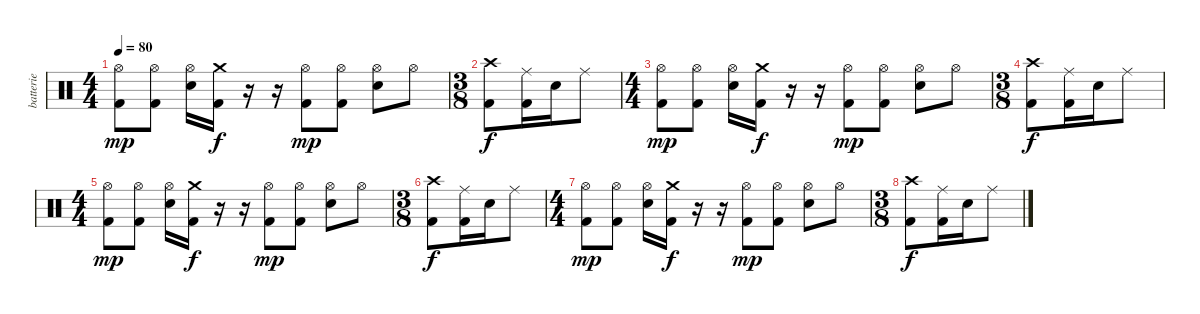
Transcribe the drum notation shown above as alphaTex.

\track ("batterie" "batterie") {instrument percussion}
\staff {score}
\articulation defaults
\ts (4 4)
\tempo 80
\clef neutral
\ks c
("Hi-Hat (open)" "Kick (hit) 2").8{dy mp} ("Hi-Hat (open)" "Kick (hit) 2").8 ("Hi-Hat (open)" "Electric Snare (hit)").16 ("Crash medium (hit)" "Kick (hit) 2").16{dy f} r.16 r.16 ("Hi-Hat (open)" "Kick (hit) 2").8{dy mp} ("Hi-Hat (open)" "Kick (hit) 2").8 ("Hi-Hat (open)" "Electric Snare (hit)").8 "Hi-Hat (open)".8 |
\ts (3 8)
("Crash high (hit)" "Kick (hit) 2").8{dy f} ("Ride (middle)" "Kick (hit) 2").16 "Electric Snare (hit)".16 "Ride (middle)".8 |
\ts (4 4)
("Hi-Hat (open)" "Kick (hit) 2").8{dy mp} ("Hi-Hat (open)" "Kick (hit) 2").8 ("Hi-Hat (open)" "Electric Snare (hit)").16 ("Crash medium (hit)" "Kick (hit) 2").16{dy f} r.16 r.16 ("Hi-Hat (open)" "Kick (hit) 2").8{dy mp} ("Hi-Hat (open)" "Kick (hit) 2").8 ("Hi-Hat (open)" "Electric Snare (hit)").8 "Hi-Hat (open)".8 |
\ts (3 8)
("Crash high (hit)" "Kick (hit) 2").8{dy f} ("Ride (middle)" "Kick (hit) 2").16 "Electric Snare (hit)".16 "Ride (middle)".8 |
\ts (4 4)
("Hi-Hat (open)" "Kick (hit) 2").8{dy mp} ("Hi-Hat (open)" "Kick (hit) 2").8 ("Hi-Hat (open)" "Electric Snare (hit)").16 ("Crash medium (hit)" "Kick (hit) 2").16{dy f} r.16 r.16 ("Hi-Hat (open)" "Kick (hit) 2").8{dy mp} ("Hi-Hat (open)" "Kick (hit) 2").8 ("Hi-Hat (open)" "Electric Snare (hit)").8 "Hi-Hat (open)".8 |
\ts (3 8)
("Crash high (hit)" "Kick (hit) 2").8{dy f} ("Ride (middle)" "Kick (hit) 2").16 "Electric Snare (hit)".16 "Ride (middle)".8 |
\ts (4 4)
("Hi-Hat (open)" "Kick (hit) 2").8{dy mp} ("Hi-Hat (open)" "Kick (hit) 2").8 ("Hi-Hat (open)" "Electric Snare (hit)").16 ("Crash medium (hit)" "Kick (hit) 2").16{dy f} r.16 r.16 ("Hi-Hat (open)" "Kick (hit) 2").8{dy mp} ("Hi-Hat (open)" "Kick (hit) 2").8 ("Hi-Hat (open)" "Electric Snare (hit)").8 "Hi-Hat (open)".8 |
\ts (3 8)
("Crash high (hit)" "Kick (hit) 2").8{dy f} ("Ride (middle)" "Kick (hit) 2").16 "Electric Snare (hit)".16 "Ride (middle)".8
